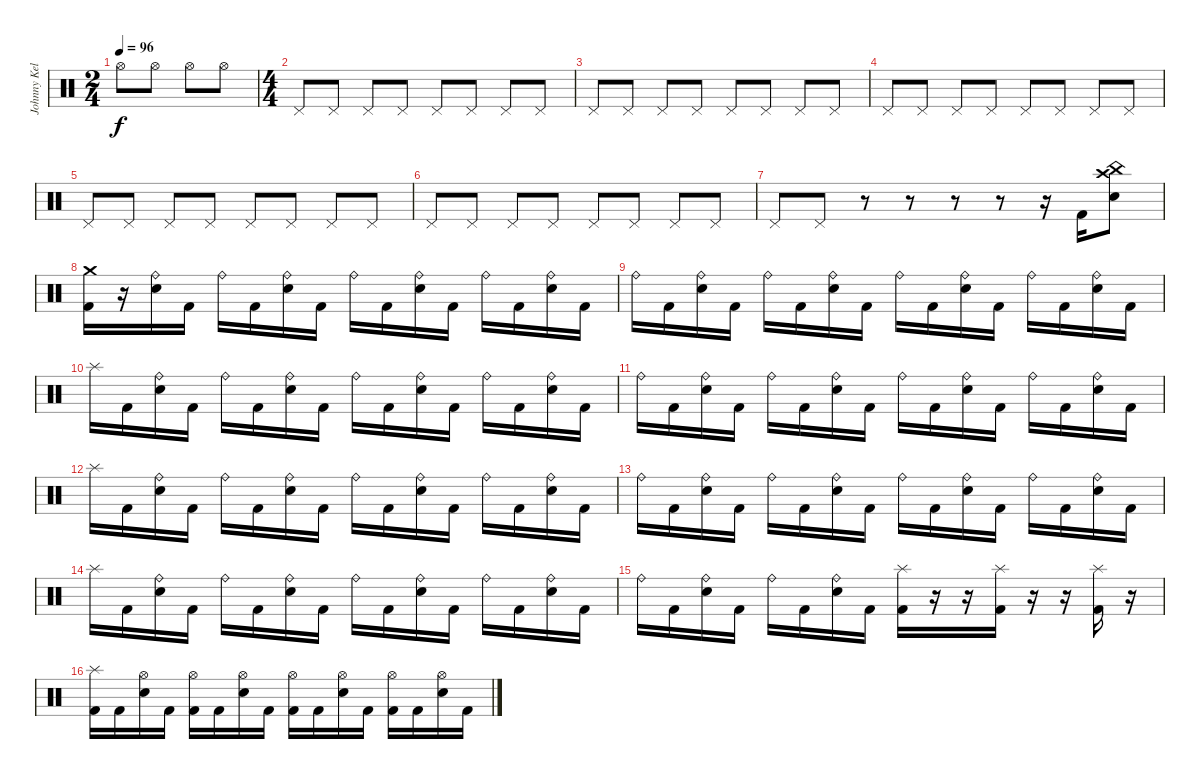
\track ("Johnny Kelly - Drums" "Johnny Kel") {instrument percussion}
\staff {score}
\articulation defaults
\ts (2 4)
\tempo 96
\clef neutral
\ks c "Hi-Hat (open)".8{dy f} "Hi-Hat (open)".8 "Hi-Hat (open)".8 "Hi-Hat (open)".8
|
\ts (4 4)
"Pedal Hi-Hat (hit)".8 "Pedal Hi-Hat (hit)".8 "Pedal Hi-Hat (hit)".8 "Pedal Hi-Hat (hit)".8 "Pedal Hi-Hat (hit)".8 "Pedal Hi-Hat (hit)".8 "Pedal Hi-Hat (hit)".8 "Pedal Hi-Hat (hit)".8 |
"Pedal Hi-Hat (hit)".8 "Pedal Hi-Hat (hit)".8 "Pedal Hi-Hat (hit)".8 "Pedal Hi-Hat (hit)".8 "Pedal Hi-Hat (hit)".8 "Pedal Hi-Hat (hit)".8 "Pedal Hi-Hat (hit)".8 "Pedal Hi-Hat (hit)".8 |
"Pedal Hi-Hat (hit)".8 "Pedal Hi-Hat (hit)".8 "Pedal Hi-Hat (hit)".8 "Pedal Hi-Hat (hit)".8 "Pedal Hi-Hat (hit)".8 "Pedal Hi-Hat (hit)".8 "Pedal Hi-Hat (hit)".8 "Pedal Hi-Hat (hit)".8 |
"Pedal Hi-Hat (hit)".8 "Pedal Hi-Hat (hit)".8 "Pedal Hi-Hat (hit)".8 "Pedal Hi-Hat (hit)".8 "Pedal Hi-Hat (hit)".8 "Pedal Hi-Hat (hit)".8 "Pedal Hi-Hat (hit)".8 "Pedal Hi-Hat (hit)".8 |
"Pedal Hi-Hat (hit)".8 "Pedal Hi-Hat (hit)".8 "Pedal Hi-Hat (hit)".8 "Pedal Hi-Hat (hit)".8 "Pedal Hi-Hat (hit)".8 "Pedal Hi-Hat (hit)".8 "Pedal Hi-Hat (hit)".8 "Pedal Hi-Hat (hit)".8 |
"Pedal Hi-Hat (hit)".8 "Pedal Hi-Hat (hit)".8 r.8 r.8 r.8 r.8 r.16 "Kick (hit) 2".16 ("China (hit)" "Crash high (hit)" "Snare (hit) 2").8 |
("Crash medium (hit)" "Kick (hit) 2").16 r.16 ("Ride (bell)" "Electric Snare (hit)").16 "Kick (hit) 2".16 "Ride (bell)".16 "Kick (hit) 2".16 ("Ride (bell)" "Electric Snare (hit)").16 "Kick (hit) 2".16 "Ride (bell)".16 "Kick (hit) 2".16 ("Ride (bell)" "Electric Snare (hit)").16 "Kick (hit) 2".16 "Ride (bell)".16 "Kick (hit) 2".16 ("Ride (bell)" "Electric Snare (hit)").16 "Kick (hit) 2".16 |
"Ride (bell)".16 "Kick (hit) 2".16 ("Ride (bell)" "Electric Snare (hit)").16 "Kick (hit) 2".16 "Ride (bell)".16 "Kick (hit) 2".16 ("Ride (bell)" "Electric Snare (hit)").16 "Kick (hit) 2".16 "Ride (bell)".16 "Kick (hit) 2".16 ("Ride (bell)" "Electric Snare (hit)").16 "Kick (hit) 2".16 "Ride (bell)".16 "Kick (hit) 2".16 ("Ride (bell)" "Electric Snare (hit)").16 "Kick (hit) 2".16 |
"Splash (hit)".16 "Kick (hit) 2".16 ("Ride (bell)" "Electric Snare (hit)").16 "Kick (hit) 2".16 "Ride (bell)".16 "Kick (hit) 2".16 ("Ride (bell)" "Electric Snare (hit)").16 "Kick (hit) 2".16 "Ride (bell)".16 "Kick (hit) 2".16 ("Ride (bell)" "Electric Snare (hit)").16 "Kick (hit) 2".16 "Ride (bell)".16 "Kick (hit) 2".16 ("Ride (bell)" "Electric Snare (hit)").16 "Kick (hit) 2".16 |
"Ride (bell)".16 "Kick (hit) 2".16 ("Ride (bell)" "Electric Snare (hit)").16 "Kick (hit) 2".16 "Ride (bell)".16 "Kick (hit) 2".16 ("Ride (bell)" "Electric Snare (hit)").16 "Kick (hit) 2".16 "Ride (bell)".16 "Kick (hit) 2".16 ("Ride (bell)" "Electric Snare (hit)").16 "Kick (hit) 2".16 "Ride (bell)".16 "Kick (hit) 2".16 ("Ride (bell)" "Electric Snare (hit)").16 "Kick (hit) 2".16 |
"Splash (hit)".16 "Kick (hit) 2".16 ("Ride (bell)" "Electric Snare (hit)").16 "Kick (hit) 2".16 "Ride (bell)".16 "Kick (hit) 2".16 ("Ride (bell)" "Electric Snare (hit)").16 "Kick (hit) 2".16 "Ride (bell)".16 "Kick (hit) 2".16 ("Ride (bell)" "Electric Snare (hit)").16 "Kick (hit) 2".16 "Ride (bell)".16 "Kick (hit) 2".16 ("Ride (bell)" "Electric Snare (hit)").16 "Kick (hit) 2".16 |
"Ride (bell)".16 "Kick (hit) 2".16 ("Ride (bell)" "Electric Snare (hit)").16 "Kick (hit) 2".16 "Ride (bell)".16 "Kick (hit) 2".16 ("Ride (bell)" "Electric Snare (hit)").16 "Kick (hit) 2".16 "Ride (bell)".16 "Kick (hit) 2".16 ("Ride (bell)" "Electric Snare (hit)").16 "Kick (hit) 2".16 "Ride (bell)".16 "Kick (hit) 2".16 ("Ride (bell)" "Electric Snare (hit)").16 "Kick (hit) 2".16 |
"Splash (hit)".16 "Kick (hit) 2".16 ("Ride (bell)" "Electric Snare (hit)").16 "Kick (hit) 2".16 "Ride (bell)".16 "Kick (hit) 2".16 ("Ride (bell)" "Electric Snare (hit)").16 "Kick (hit) 2".16 "Ride (bell)".16 "Kick (hit) 2".16 ("Ride (bell)" "Electric Snare (hit)").16 "Kick (hit) 2".16 "Ride (bell)".16 "Kick (hit) 2".16 ("Ride (bell)" "Electric Snare (hit)").16 "Kick (hit) 2".16 |
"Ride (bell)".16 "Kick (hit) 2".16 ("Ride (bell)" "Electric Snare (hit)").16 "Kick (hit) 2".16 "Ride (bell)".16 "Kick (hit) 2".16 ("Ride (bell)" "Electric Snare (hit)").16 "Kick (hit) 2".16 ("Splash (hit)" "Kick (hit) 2").16 r.16 r.16 ("Splash (hit)" "Kick (hit) 2").16 r.16 r.16 ("Splash (hit)" "Kick (hit) 2").16 r.16 |
("Splash (hit)" "Kick (hit) 2").16 "Kick (hit) 2".16 ("Hi-Hat (open)" "Electric Snare (hit)").16 "Kick (hit) 2".16 ("Hi-Hat (open)" "Kick (hit) 2").16 "Kick (hit) 2".16 ("Hi-Hat (open)" "Electric Snare (hit)").16 "Kick (hit) 2".16 ("Hi-Hat (open)" "Kick (hit) 2").16 "Kick (hit) 2".16 ("Hi-Hat (open)" "Electric Snare (hit)").16 "Kick (hit) 2".16 ("Hi-Hat (open)" "Kick (hit) 2").16 "Kick (hit) 2".16 ("Hi-Hat (open)" "Electric Snare (hit)").16 "Kick (hit) 2".16
